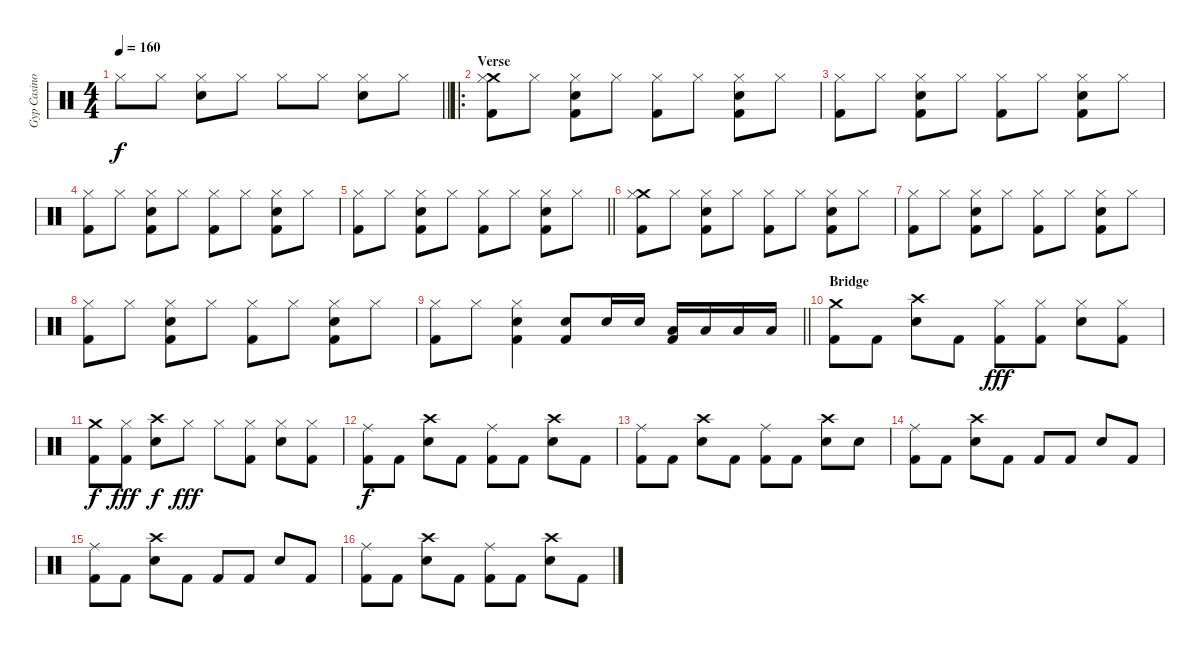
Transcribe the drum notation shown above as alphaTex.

\track ("Gyp Casino" "Gyp Casino") {instrument percussion}
\staff {score}
\articulation defaults
\ts (4 4)
\tempo 160
\clef neutral
\barLineRight lightlight
\ks c "Hi-Hat (closed)".8{dy f} "Hi-Hat (closed)".8
("Hi-Hat (closed)" "Snare (hit) 2").8 "Hi-Hat (closed)".8 "Hi-Hat (closed)".8 "Hi-Hat (closed)".8 ("Hi-Hat (closed)" "Snare (hit) 2").8 "Hi-Hat (closed)".8 |
\ro
\section ("" "Verse")
("Crash medium (hit)" "Hi-Hat (closed)" "Kick (hit) 2").8 "Hi-Hat (closed)".8 ("Snare (hit) 2" "Hi-Hat (closed)" "Kick (hit) 2").8 "Hi-Hat (closed)".8 ("Hi-Hat (closed)" "Kick (hit) 2").8 "Hi-Hat (closed)".8 ("Snare (hit) 2" "Hi-Hat (closed)" "Kick (hit) 2").8 "Hi-Hat (closed)".8 |
("Hi-Hat (closed)" "Kick (hit) 2").8 "Hi-Hat (closed)".8 ("Snare (hit) 2" "Hi-Hat (closed)" "Kick (hit) 2").8 "Hi-Hat (closed)".8 ("Hi-Hat (closed)" "Kick (hit) 2").8 "Hi-Hat (closed)".8 ("Snare (hit) 2" "Hi-Hat (closed)" "Kick (hit) 2").8 "Hi-Hat (closed)".8 |
("Hi-Hat (closed)" "Kick (hit) 2").8 "Hi-Hat (closed)".8 ("Snare (hit) 2" "Hi-Hat (closed)" "Kick (hit) 2").8 "Hi-Hat (closed)".8 ("Hi-Hat (closed)" "Kick (hit) 2").8 "Hi-Hat (closed)".8 ("Snare (hit) 2" "Hi-Hat (closed)" "Kick (hit) 2").8 "Hi-Hat (closed)".8 |
\barLineRight lightlight
("Hi-Hat (closed)" "Kick (hit) 2").8 "Hi-Hat (closed)".8 ("Snare (hit) 2" "Hi-Hat (closed)" "Kick (hit) 2").8 "Hi-Hat (closed)".8 ("Hi-Hat (closed)" "Kick (hit) 2").8 "Hi-Hat (closed)".8 ("Snare (hit) 2" "Hi-Hat (closed)" "Kick (hit) 2").8 "Hi-Hat (closed)".8 |
("Crash medium (hit)" "Hi-Hat (closed)" "Kick (hit) 2").8 "Hi-Hat (closed)".8 ("Snare (hit) 2" "Hi-Hat (closed)" "Kick (hit) 2").8 "Hi-Hat (closed)".8 ("Hi-Hat (closed)" "Kick (hit) 2").8 "Hi-Hat (closed)".8 ("Snare (hit) 2" "Hi-Hat (closed)" "Kick (hit) 2").8 "Hi-Hat (closed)".8 |
("Hi-Hat (closed)" "Kick (hit) 2").8 "Hi-Hat (closed)".8 ("Snare (hit) 2" "Hi-Hat (closed)" "Kick (hit) 2").8 "Hi-Hat (closed)".8 ("Hi-Hat (closed)" "Kick (hit) 2").8 "Hi-Hat (closed)".8 ("Snare (hit) 2" "Hi-Hat (closed)" "Kick (hit) 2").8 "Hi-Hat (closed)".8 |
("Hi-Hat (closed)" "Kick (hit) 2").8 "Hi-Hat (closed)".8 ("Snare (hit) 2" "Hi-Hat (closed)" "Kick (hit) 2").8 "Hi-Hat (closed)".8 ("Hi-Hat (closed)" "Kick (hit) 2").8 "Hi-Hat (closed)".8 ("Snare (hit) 2" "Hi-Hat (closed)" "Kick (hit) 2").8 "Hi-Hat (closed)".8 |
\barLineRight lightlight
("Hi-Hat (closed)" "Kick (hit) 2").8 "Hi-Hat (closed)".8 ("Hi-Hat (closed)" "Electric Snare (hit)" "Kick (hit) 2").4 ("Electric Snare (hit)" "Kick (hit) 2").8 "Electric Snare (hit)".16 "Electric Snare (hit)".16 ("Low Tom (hit)" "Kick (hit) 2").16 "Low Tom (hit)".16 "Low Tom (hit)".16 "Low Tom (hit)".16 |
\section ("" "Bridge")
("Crash medium (hit)" "Kick (hit) 2").8 "Kick (hit) 2".8 ("Crash high (hit)" "Snare (hit) 2").8 "Kick (hit) 2".8 ("Hi-Hat (closed)" "Kick (hit) 2").8{dy fff} ("Hi-Hat (closed)" "Kick (hit) 2").8 ("Hi-Hat (closed)" "Snare (hit) 2").8 ("Hi-Hat (closed)" "Kick (hit) 2").8 |
("Crash medium (hit)" "Kick (hit) 2").8{dy f} ("Hi-Hat (closed)" "Kick (hit) 2").8{dy fff} ("Crash high (hit)" "Snare (hit) 2").8{dy f} "Hi-Hat (closed)".8{dy fff} "Hi-Hat (closed)".8 ("Hi-Hat (closed)" "Kick (hit) 2").8 ("Hi-Hat (closed)" "Snare (hit) 2").8 ("Hi-Hat (closed)" "Kick (hit) 2").8 |
("Ride (middle)" "Kick (hit) 2").8{dy f} "Kick (hit) 2".8 ("Crash high (hit)" "Snare (hit) 2").8 "Kick (hit) 2".8 ("Ride (middle)" "Kick (hit) 2").8 "Kick (hit) 2".8 ("Crash high (hit)" "Snare (hit) 2").8 "Kick (hit) 2".8 |
("Ride (middle)" "Kick (hit) 2").8 "Kick (hit) 2".8 ("Crash high (hit)" "Snare (hit) 2").8 "Kick (hit) 2".8 ("Ride (middle)" "Kick (hit) 2").8 "Kick (hit) 2".8 ("Crash high (hit)" "Snare (hit) 2").8 "Snare (hit) 2".8 |
("Ride (middle)" "Kick (hit) 2").8 "Kick (hit) 2".8 ("Crash high (hit)" "Snare (hit) 2").8 "Kick (hit) 2".8 "Kick (hit) 2".8 "Kick (hit) 2".8 "Snare (hit) 2".8 "Kick (hit) 2".8 |
("Ride (middle)" "Kick (hit) 2").8 "Kick (hit) 2".8 ("Crash high (hit)" "Snare (hit) 2").8 "Kick (hit) 2".8 "Kick (hit) 2".8 "Kick (hit) 2".8 "Snare (hit) 2".8 "Kick (hit) 2".8 |
("Ride (middle)" "Kick (hit) 2").8 "Kick (hit) 2".8 ("Crash high (hit)" "Snare (hit) 2").8 "Kick (hit) 2".8 ("Ride (middle)" "Kick (hit) 2").8 "Kick (hit) 2".8 ("Crash high (hit)" "Snare (hit) 2").8 "Kick (hit) 2".8
